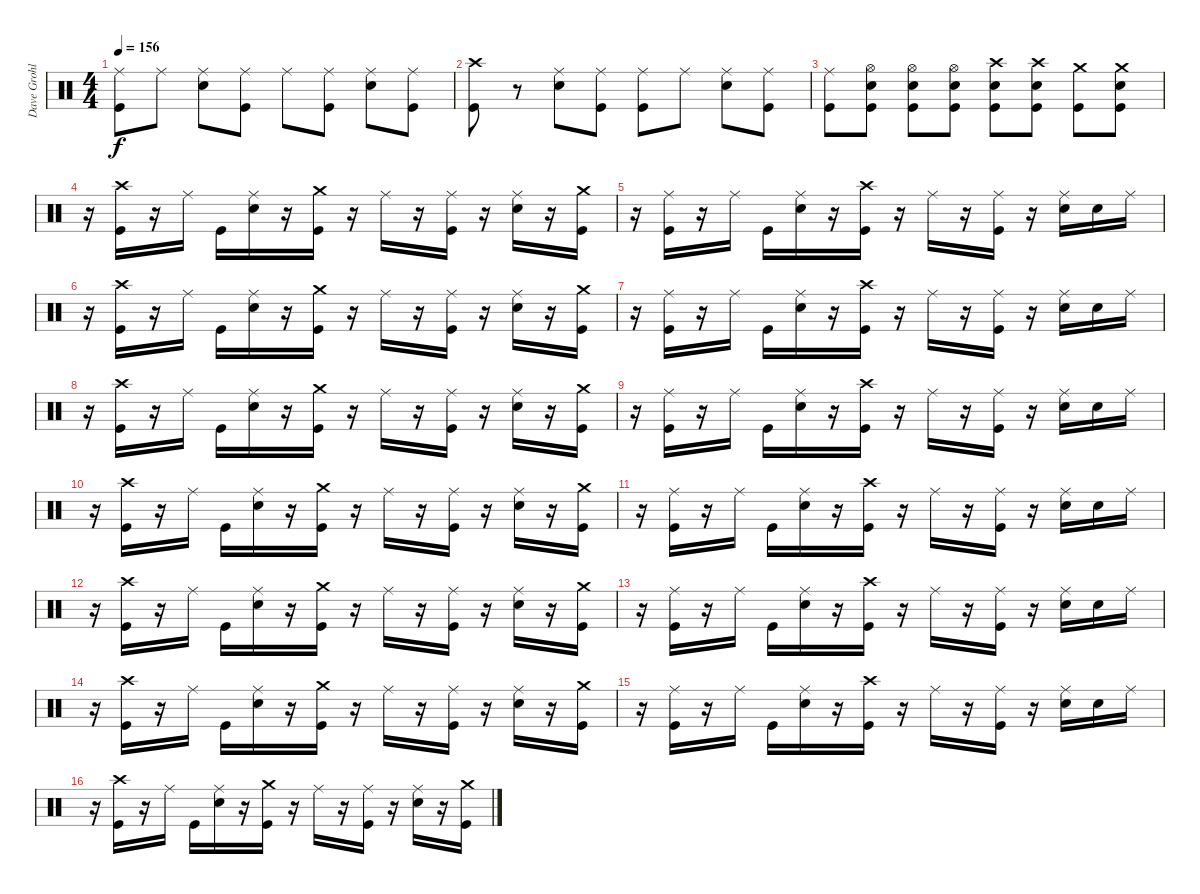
\track ("Dave Grohl - Drums" "Dave Grohl") {instrument percussion}
\staff {score}
\articulation defaults
\ts (4 4)
\tempo 156
\clef neutral
\ks c
("Ride (middle)" "Kick (hit)").8{dy f} "Ride (middle)".8 ("Ride (middle)" "Snare (hit) 2").8 ("Ride (middle)" "Kick (hit)").8 "Ride (middle)".8 ("Ride (middle)" "Kick (hit)").8 ("Ride (middle)" "Snare (hit) 2").8 ("Ride (middle)" "Kick (hit)").8 |
("Crash high (hit)" "Kick (hit)").8 r.8 ("Ride (middle)" "Snare (hit) 2").8 ("Ride (middle)" "Kick (hit)").8 ("Ride (middle)" "Kick (hit)").8 "Ride (middle)".8 ("Ride (middle)" "Snare (hit) 2").8 ("Ride (middle)" "Kick (hit)").8 |
("Ride (middle)" "Kick (hit)").8 ("Hi-Hat (open)" "Snare (hit) 2" "Kick (hit)").8 ("Hi-Hat (open)" "Snare (hit) 2" "Kick (hit)").8 ("Hi-Hat (open)" "Snare (hit) 2" "Kick (hit)").8 ("Crash high (hit)" "Snare (hit) 2" "Kick (hit)").8 ("Crash high (hit)" "Snare (hit) 2" "Kick (hit)").8 ("Crash medium (hit)" "Kick (hit)").8 ("Crash medium (hit)" "Snare (hit) 2" "Kick (hit)").8 |
r.16 ("Crash high (hit)" "Kick (hit)").16 r.16 "Ride (middle)".16 "Kick (hit)".16 ("Ride (middle)" "Snare (hit) 2").16 r.16 ("Crash medium (hit)" "Kick (hit)").16 r.16 "Ride (middle)".16 r.16 ("Ride (middle)" "Kick (hit)").16 r.16 ("Ride (middle)" "Snare (hit) 2").16 r.16 ("Crash medium (hit)" "Kick (hit)").16 |
r.16 ("Ride (middle)" "Kick (hit)").16 r.16 "Ride (middle)".16 "Kick (hit)".16 ("Ride (middle)" "Snare (hit) 2").16 r.16 ("Crash high (hit)" "Kick (hit)").16 r.16 "Ride (middle)".16 r.16 ("Ride (middle)" "Kick (hit)").16 r.16 ("Ride (middle)" "Snare (hit) 2").16 "Snare (hit) 2".16 "Ride (middle)".16 |
r.16 ("Crash high (hit)" "Kick (hit)").16 r.16 "Ride (middle)".16 "Kick (hit)".16 ("Ride (middle)" "Snare (hit) 2").16 r.16 ("Crash medium (hit)" "Kick (hit)").16 r.16 "Ride (middle)".16 r.16 ("Ride (middle)" "Kick (hit)").16 r.16 ("Ride (middle)" "Snare (hit) 2").16 r.16 ("Crash medium (hit)" "Kick (hit)").16 |
r.16 ("Ride (middle)" "Kick (hit)").16 r.16 "Ride (middle)".16 "Kick (hit)".16 ("Ride (middle)" "Snare (hit) 2").16 r.16 ("Crash high (hit)" "Kick (hit)").16 r.16 "Ride (middle)".16 r.16 ("Ride (middle)" "Kick (hit)").16 r.16 ("Ride (middle)" "Snare (hit) 2").16 "Snare (hit) 2".16 "Ride (middle)".16 |
r.16 ("Crash high (hit)" "Kick (hit)").16 r.16 "Ride (middle)".16 "Kick (hit)".16 ("Ride (middle)" "Snare (hit) 2").16 r.16 ("Crash medium (hit)" "Kick (hit)").16 r.16 "Ride (middle)".16 r.16 ("Ride (middle)" "Kick (hit)").16 r.16 ("Ride (middle)" "Snare (hit) 2").16 r.16 ("Crash medium (hit)" "Kick (hit)").16 |
r.16 ("Ride (middle)" "Kick (hit)").16 r.16 "Ride (middle)".16 "Kick (hit)".16 ("Ride (middle)" "Snare (hit) 2").16 r.16 ("Crash high (hit)" "Kick (hit)").16 r.16 "Ride (middle)".16 r.16 ("Ride (middle)" "Kick (hit)").16 r.16 ("Ride (middle)" "Snare (hit) 2").16 "Snare (hit) 2".16 "Ride (middle)".16 |
r.16 ("Crash high (hit)" "Kick (hit)").16 r.16 "Ride (middle)".16 "Kick (hit)".16 ("Ride (middle)" "Snare (hit) 2").16 r.16 ("Crash medium (hit)" "Kick (hit)").16 r.16 "Ride (middle)".16 r.16 ("Ride (middle)" "Kick (hit)").16 r.16 ("Ride (middle)" "Snare (hit) 2").16 r.16 ("Crash medium (hit)" "Kick (hit)").16 |
r.16 ("Ride (middle)" "Kick (hit)").16 r.16 "Ride (middle)".16 "Kick (hit)".16 ("Ride (middle)" "Snare (hit) 2").16 r.16 ("Crash high (hit)" "Kick (hit)").16 r.16 "Ride (middle)".16 r.16 ("Ride (middle)" "Kick (hit)").16 r.16 ("Ride (middle)" "Snare (hit) 2").16 "Snare (hit) 2".16 "Ride (middle)".16 |
r.16 ("Crash high (hit)" "Kick (hit)").16 r.16 "Ride (middle)".16 "Kick (hit)".16 ("Ride (middle)" "Snare (hit) 2").16 r.16 ("Crash medium (hit)" "Kick (hit)").16 r.16 "Ride (middle)".16 r.16 ("Ride (middle)" "Kick (hit)").16 r.16 ("Ride (middle)" "Snare (hit) 2").16 r.16 ("Crash medium (hit)" "Kick (hit)").16 |
r.16 ("Ride (middle)" "Kick (hit)").16 r.16 "Ride (middle)".16 "Kick (hit)".16 ("Ride (middle)" "Snare (hit) 2").16 r.16 ("Crash high (hit)" "Kick (hit)").16 r.16 "Ride (middle)".16 r.16 ("Ride (middle)" "Kick (hit)").16 r.16 ("Ride (middle)" "Snare (hit) 2").16 "Snare (hit) 2".16 "Ride (middle)".16 |
r.16 ("Crash high (hit)" "Kick (hit)").16 r.16 "Ride (middle)".16 "Kick (hit)".16 ("Ride (middle)" "Snare (hit) 2").16 r.16 ("Crash medium (hit)" "Kick (hit)").16 r.16 "Ride (middle)".16 r.16 ("Ride (middle)" "Kick (hit)").16 r.16 ("Ride (middle)" "Snare (hit) 2").16 r.16 ("Crash medium (hit)" "Kick (hit)").16 |
r.16 ("Ride (middle)" "Kick (hit)").16 r.16 "Ride (middle)".16 "Kick (hit)".16 ("Ride (middle)" "Snare (hit) 2").16 r.16 ("Crash high (hit)" "Kick (hit)").16 r.16 "Ride (middle)".16 r.16 ("Ride (middle)" "Kick (hit)").16 r.16 ("Ride (middle)" "Snare (hit) 2").16 "Snare (hit) 2".16 "Ride (middle)".16 |
r.16 ("Crash high (hit)" "Kick (hit)").16 r.16 "Ride (middle)".16 "Kick (hit)".16 ("Ride (middle)" "Snare (hit) 2").16 r.16 ("Crash medium (hit)" "Kick (hit)").16 r.16 "Ride (middle)".16 r.16 ("Ride (middle)" "Kick (hit)").16 r.16 ("Ride (middle)" "Snare (hit) 2").16 r.16 ("Crash medium (hit)" "Kick (hit)").16
